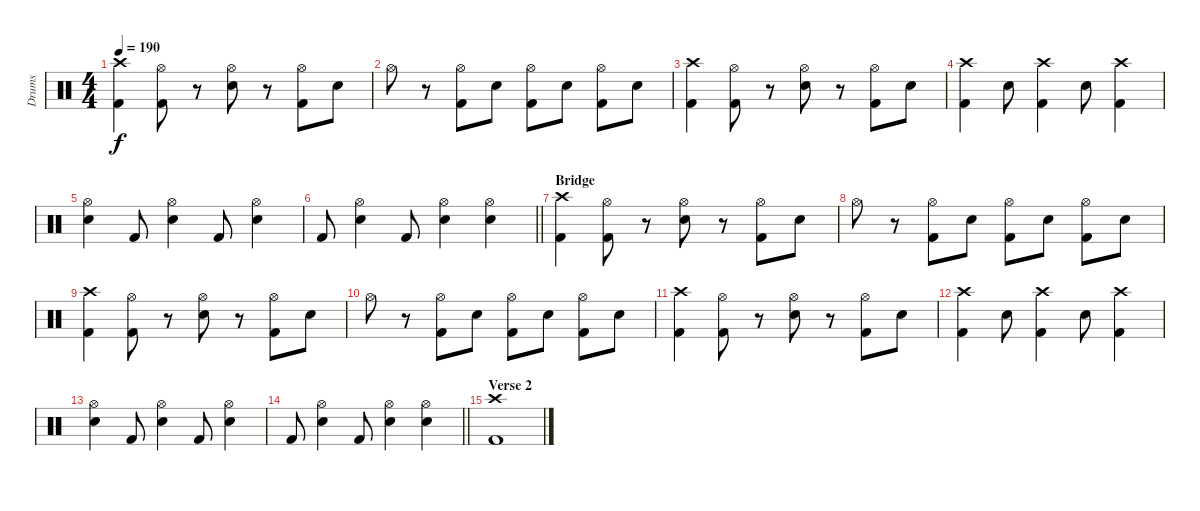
\track ("Drums" "Drums") {instrument percussion}
\staff {score}
\articulation defaults
\ts (4 4)
\tempo 190
\clef neutral
\ks c
("Crash high (hit)" "Kick (hit) 2").4{dy f} ("Hi-Hat (open)" "Kick (hit) 2").8 r.8 ("Snare (hit) 2" "Hi-Hat (open)").8 r.8 ("Hi-Hat (open)" "Kick (hit) 2").8 "Snare (hit) 2".8 |
"Hi-Hat (open)".8 r.8 ("Hi-Hat (open)" "Kick (hit) 2").8 "Snare (hit) 2".8 ("Hi-Hat (open)" "Kick (hit) 2").8 "Snare (hit) 2".8 ("Hi-Hat (open)" "Kick (hit) 2").8 "Snare (hit) 2".8 |
("Crash high (hit)" "Kick (hit) 2").4 ("Hi-Hat (open)" "Kick (hit) 2").8 r.8 ("Snare (hit) 2" "Hi-Hat (open)").8 r.8 ("Hi-Hat (open)" "Kick (hit) 2").8 "Snare (hit) 2".8 |
("Crash high (hit)" "Kick (hit) 2").4 "Snare (hit) 2".8 ("Crash high (hit)" "Kick (hit) 2").4 "Snare (hit) 2".8 ("Crash high (hit)" "Kick (hit) 2").4 |
("Snare (hit) 2" "Hi-Hat (open)").4 "Kick (hit) 2".8 ("Snare (hit) 2" "Hi-Hat (open)").4 "Kick (hit) 2".8 ("Snare (hit) 2" "Hi-Hat (open)").4 |
\barLineRight lightlight "Kick (hit) 2".8
("Snare (hit) 2" "Hi-Hat (open)").4 "Kick (hit) 2".8 ("Snare (hit) 2" "Hi-Hat (open)").4 ("Snare (hit) 2" "Hi-Hat (open)").4 |
\section ("" "Bridge")
("Crash high (hit)" "Kick (hit) 2").4 ("Hi-Hat (open)" "Kick (hit) 2").8 r.8 ("Snare (hit) 2" "Hi-Hat (open)").8 r.8 ("Hi-Hat (open)" "Kick (hit) 2").8 "Snare (hit) 2".8 |
"Hi-Hat (open)".8 r.8 ("Hi-Hat (open)" "Kick (hit) 2").8 "Snare (hit) 2".8 ("Hi-Hat (open)" "Kick (hit) 2").8 "Snare (hit) 2".8 ("Hi-Hat (open)" "Kick (hit) 2").8 "Snare (hit) 2".8 |
("Crash high (hit)" "Kick (hit) 2").4 ("Hi-Hat (open)" "Kick (hit) 2").8 r.8 ("Snare (hit) 2" "Hi-Hat (open)").8 r.8 ("Hi-Hat (open)" "Kick (hit) 2").8 "Snare (hit) 2".8 |
"Hi-Hat (open)".8 r.8 ("Hi-Hat (open)" "Kick (hit) 2").8 "Snare (hit) 2".8 ("Hi-Hat (open)" "Kick (hit) 2").8 "Snare (hit) 2".8 ("Hi-Hat (open)" "Kick (hit) 2").8 "Snare (hit) 2".8 |
("Crash high (hit)" "Kick (hit) 2").4 ("Hi-Hat (open)" "Kick (hit) 2").8 r.8 ("Snare (hit) 2" "Hi-Hat (open)").8 r.8 ("Hi-Hat (open)" "Kick (hit) 2").8 "Snare (hit) 2".8 |
("Crash high (hit)" "Kick (hit) 2").4 "Snare (hit) 2".8 ("Crash high (hit)" "Kick (hit) 2").4 "Snare (hit) 2".8 ("Crash high (hit)" "Kick (hit) 2").4 |
("Snare (hit) 2" "Hi-Hat (open)").4 "Kick (hit) 2".8 ("Snare (hit) 2" "Hi-Hat (open)").4 "Kick (hit) 2".8 ("Snare (hit) 2" "Hi-Hat (open)").4 |
\barLineRight lightlight "Kick (hit) 2".8
("Snare (hit) 2" "Hi-Hat (open)").4 "Kick (hit) 2".8 ("Snare (hit) 2" "Hi-Hat (open)").4 ("Snare (hit) 2" "Hi-Hat (open)").4 |
\section ("" "Verse 2")
("Crash high (hit)" "Kick (hit) 2").1
